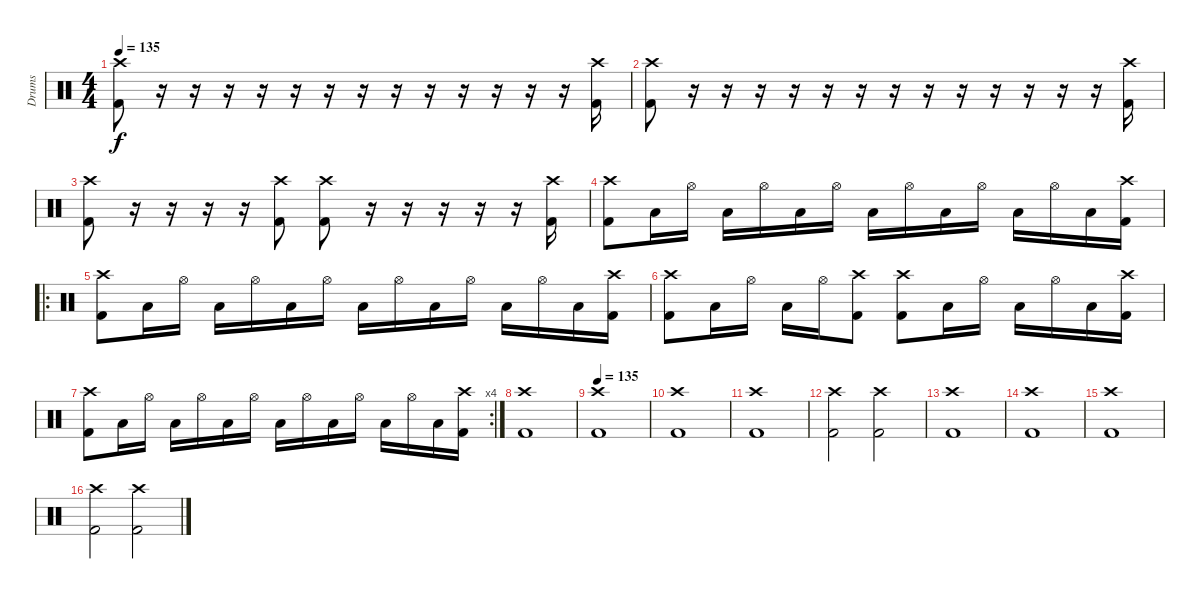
\track ("Drums" "Drums") {instrument percussion}
\staff {score}
\articulation defaults
\ts (4 4)
\tempo 135
\clef neutral
\ks c
("Crash high (hit)" "Kick (hit) 2").8{dy f} r.16 r.16 r.16 r.16 r.16 r.16 r.16 r.16 r.16 r.16 r.16 r.16 r.16 ("Crash high (hit)" "Kick (hit) 2").16 |
("Crash high (hit)" "Kick (hit) 2").8 r.16 r.16 r.16 r.16 r.16 r.16 r.16 r.16 r.16 r.16 r.16 r.16 r.16 ("Crash high (hit)" "Kick (hit) 2").16 |
("Kick (hit) 2" "Crash high (hit)").8 r.16 r.16 r.16 r.16 ("Kick (hit) 2" "Crash high (hit)").8 ("Kick (hit) 2" "Crash high (hit)").8 r.16 r.16 r.16 r.16 r.16 ("Crash high (hit)" "Kick (hit) 2").16 |
("Crash high (hit)" "Kick (hit) 2").8 "Low Tom (hit)".16 "Hi-Hat (open)".16 "Low Tom (hit)".16 "Hi-Hat (open)".16 "Low Tom (hit)".16 "Hi-Hat (open)".16 "Low Tom (hit)".16 "Hi-Hat (open)".16 "Low Tom (hit)".16 "Hi-Hat (open)".16 "Low Tom (hit)".16 "Hi-Hat (open)".16 "Low Tom (hit)".16 ("Crash high (hit)" "Kick (hit) 2").16 |
\ro
("Crash high (hit)" "Kick (hit) 2").8 "Low Tom (hit)".16 "Hi-Hat (open)".16 "Low Tom (hit)".16 "Hi-Hat (open)".16 "Low Tom (hit)".16 "Hi-Hat (open)".16 "Low Tom (hit)".16 "Hi-Hat (open)".16 "Low Tom (hit)".16 "Hi-Hat (open)".16 "Low Tom (hit)".16 "Hi-Hat (open)".16 "Low Tom (hit)".16 ("Crash high (hit)" "Kick (hit) 2").16 |
("Kick (hit) 2" "Crash high (hit)").8 "Low Tom (hit)".16 "Hi-Hat (open)".16 "Low Tom (hit)".16 "Hi-Hat (open)".16 ("Kick (hit) 2" "Crash high (hit)").8 ("Kick (hit) 2" "Crash high (hit)").8 "Low Tom (hit)".16 "Hi-Hat (open)".16 "Low Tom (hit)".16 "Hi-Hat (open)".16 "Low Tom (hit)".16 ("Crash high (hit)" "Kick (hit) 2").16 |
\rc 4
("Crash high (hit)" "Kick (hit) 2").8 "Low Tom (hit)".16 "Hi-Hat (open)".16 "Low Tom (hit)".16 "Hi-Hat (open)".16 "Low Tom (hit)".16 "Hi-Hat (open)".16 "Low Tom (hit)".16 "Hi-Hat (open)".16 "Low Tom (hit)".16 "Hi-Hat (open)".16 "Low Tom (hit)".16 "Hi-Hat (open)".16 "Low Tom (hit)".16 ("Crash high (hit)" "Kick (hit) 2").16 |
("Crash high (hit)" "Kick (hit) 2").1 |
\tempo 135
("Kick (hit) 2" "Crash high (hit)").1 |
("Crash high (hit)" "Kick (hit) 2").1 |
("Crash high (hit)" "Kick (hit) 2").1 |
("Crash high (hit)" "Kick (hit) 2").2 ("Crash high (hit)" "Kick (hit) 2").2 |
("Crash high (hit)" "Kick (hit) 2").1 |
("Crash high (hit)" "Kick (hit) 2").1 |
("Crash high (hit)" "Kick (hit) 2").1 |
("Crash high (hit)" "Kick (hit) 2").2 ("Crash high (hit)" "Kick (hit) 2").2
